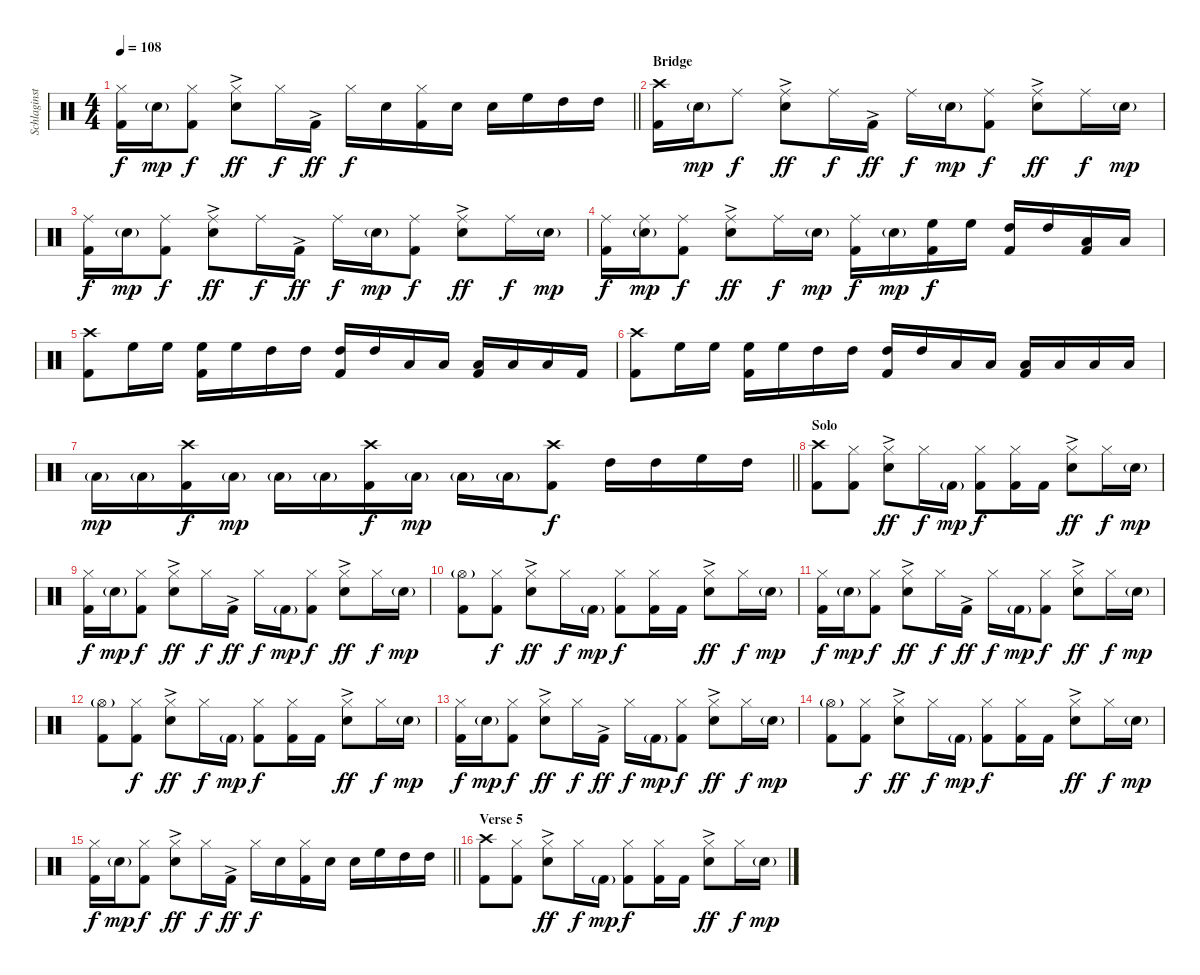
\track ("Schlaginstrumente - Auswahl" "Schlaginst") {instrument percussion}
\staff {score}
\articulation defaults
\ts (4 4)
\tempo 108
\clef neutral
\barLineRight lightlight
\ks c
("Hi-Hat (closed)" "Kick (hit) 2").16{dy f} "Snare (hit) 2"{g}.16{dy mp} ("Hi-Hat (closed)" "Kick (hit) 2").8{dy f} ("Hi-Hat (closed)" "Snare (hit) 2"{ac}).8{dy ff} "Hi-Hat (closed)".16{dy f} "Kick (hit) 2"{ac}.16{dy ff} "Hi-Hat (closed)".16{dy f} "Snare (hit) 2".16 ("Hi-Hat (closed)" "Kick (hit) 2").16 "Snare (hit) 2".16 "Snare (hit) 2".16 "High Floor Tom (hit)".16 "High Tom (hit)".16 "High Tom (hit)".16 |
\section ("" "Bridge")
("Crash high (hit)" "Kick (hit) 2").16 "Snare (hit) 2"{g}.16{dy mp} "Ride (middle)".8{dy f} ("Ride (middle)" "Snare (hit) 2"{ac}).8{dy ff} "Ride (middle)".16{dy f} "Kick (hit) 2"{ac}.16{dy ff} "Ride (middle)".16{dy f} "Snare (hit) 2"{g}.16{dy mp} ("Ride (middle)" "Kick (hit) 2").8{dy f} ("Ride (middle)" "Snare (hit) 2"{ac}).8{dy ff} "Ride (middle)".16{dy f} "Snare (hit) 2"{g}.16{dy mp} |
("Ride (middle)" "Kick (hit) 2").16{dy f} "Snare (hit) 2"{g}.16{dy mp} ("Ride (middle)" "Kick (hit) 2").8{dy f} ("Ride (middle)" "Snare (hit) 2"{ac}).8{dy ff} "Ride (middle)".16{dy f} "Kick (hit) 2"{ac}.16{dy ff} "Ride (middle)".16{dy f} "Snare (hit) 2"{g}.16{dy mp} ("Ride (middle)" "Kick (hit) 2").8{dy f} ("Ride (middle)" "Snare (hit) 2"{ac}).8{dy ff} "Ride (middle)".16{dy f} "Snare (hit) 2"{g}.16{dy mp} |
("Ride (middle)" "Kick (hit) 2").16{dy f} ("Ride (middle)" "Snare (hit) 2"{g}).16{dy mp} ("Ride (middle)" "Kick (hit) 2").8{dy f} ("Ride (middle)" "Snare (hit) 2"{ac}).8{dy ff} "Ride (middle)".16{dy f} "Snare (hit) 2"{g}.16{dy mp} ("Ride (middle)" "Kick (hit) 2").16{dy f} "Snare (hit) 2"{g}.16{dy mp} ("High Floor Tom (hit)" "Kick (hit) 2").16{dy f} "High Floor Tom (hit)".16 ("High Tom (hit)" "Kick (hit) 2").16 "High Tom (hit)".16 ("Low Tom (hit)" "Kick (hit) 2").16 "Low Tom (hit)".16 |
("Crash high (hit)" "Kick (hit) 2").8 "High Floor Tom (hit)".16 "High Floor Tom (hit)".16 ("High Floor Tom (hit)" "Kick (hit) 2").16 "High Floor Tom (hit)".16 "High Tom (hit)".16 "High Tom (hit)".16 ("High Tom (hit)" "Kick (hit) 2").16 "High Tom (hit)".16 "Low Tom (hit)".16 "Low Tom (hit)".16 ("Low Tom (hit)" "Kick (hit) 2").16 "Low Tom (hit)".16 "Low Tom (hit)".16 "Kick (hit) 2".16 |
("Crash high (hit)" "Kick (hit) 2").8 "High Floor Tom (hit)".16 "High Floor Tom (hit)".16 ("High Floor Tom (hit)" "Kick (hit) 2").16 "High Floor Tom (hit)".16 "High Tom (hit)".16 "High Tom (hit)".16 ("High Tom (hit)" "Kick (hit) 2").16 "High Tom (hit)".16 "Low Tom (hit)".16 "Low Tom (hit)".16 ("Low Tom (hit)" "Kick (hit) 2").16 "Low Tom (hit)".16 "Low Tom (hit)".16 "Low Tom (hit)".16 |
\barLineRight lightlight "Low Tom (hit)"{g}.16{dy mp} "Low Tom (hit)"{g}.16
("Crash high (hit)" "Kick (hit) 2").16{dy f} "Low Tom (hit)"{g}.16{dy mp} "Low Tom (hit)"{g}.16 "Low Tom (hit)"{g}.16 ("Crash high (hit)" "Kick (hit) 2").16{dy f} "Low Tom (hit)"{g}.16{dy mp} "Low Tom (hit)"{g}.16 "Low Tom (hit)"{g}.16 ("Crash high (hit)" "Kick (hit) 2").8{dy f} "High Tom (hit)".16 "High Tom (hit)".16 "High Floor Tom (hit)".16 "High Tom (hit)".16 |
\section ("" "Solo")
("Crash high (hit)" "Kick (hit) 2").8 ("Hi-Hat (closed)" "Kick (hit) 2").8 ("Hi-Hat (closed)" "Snare (hit) 2"{ac}).8{dy ff} "Hi-Hat (closed)".16{dy f} "Kick (hit) 2"{g}.16{dy mp} ("Hi-Hat (closed)" "Kick (hit) 2").8{dy f} ("Hi-Hat (closed)" "Kick (hit) 2").16 "Kick (hit) 2".16 ("Hi-Hat (closed)" "Snare (hit) 2"{ac}).8{dy ff} "Hi-Hat (closed)".16{dy f} "Snare (hit) 2"{g}.16{dy mp} |
("Hi-Hat (closed)" "Kick (hit) 2").16{dy f} "Snare (hit) 2"{g}.16{dy mp} ("Hi-Hat (closed)" "Kick (hit) 2").8{dy f} ("Hi-Hat (closed)" "Snare (hit) 2"{ac}).8{dy ff} "Hi-Hat (closed)".16{dy f} "Kick (hit) 2"{ac}.16{dy ff} "Hi-Hat (closed)".16{dy f} "Kick (hit) 2"{g}.16{dy mp} ("Hi-Hat (closed)" "Kick (hit) 2").8{dy f} ("Hi-Hat (closed)" "Snare (hit) 2"{ac}).8{dy ff} "Hi-Hat (closed)".16{dy f} "Snare (hit) 2"{g}.16{dy mp} |
("Hi-Hat (open)"{g} "Kick (hit) 2").8 ("Hi-Hat (closed)" "Kick (hit) 2").8{dy f} ("Hi-Hat (closed)" "Snare (hit) 2"{ac}).8{dy ff} "Hi-Hat (closed)".16{dy f} "Kick (hit) 2"{g}.16{dy mp} ("Hi-Hat (closed)" "Kick (hit) 2").8{dy f} ("Hi-Hat (closed)" "Kick (hit) 2").16 "Kick (hit) 2".16 ("Hi-Hat (closed)" "Snare (hit) 2"{ac}).8{dy ff} "Hi-Hat (closed)".16{dy f} "Snare (hit) 2"{g}.16{dy mp} |
("Hi-Hat (closed)" "Kick (hit) 2").16{dy f} "Snare (hit) 2"{g}.16{dy mp} ("Hi-Hat (closed)" "Kick (hit) 2").8{dy f} ("Hi-Hat (closed)" "Snare (hit) 2"{ac}).8{dy ff} "Hi-Hat (closed)".16{dy f} "Kick (hit) 2"{ac}.16{dy ff} "Hi-Hat (closed)".16{dy f} "Kick (hit) 2"{g}.16{dy mp} ("Hi-Hat (closed)" "Kick (hit) 2").8{dy f} ("Hi-Hat (closed)" "Snare (hit) 2"{ac}).8{dy ff} "Hi-Hat (closed)".16{dy f} "Snare (hit) 2"{g}.16{dy mp} |
("Hi-Hat (open)"{g} "Kick (hit) 2").8 ("Hi-Hat (closed)" "Kick (hit) 2").8{dy f} ("Hi-Hat (closed)" "Snare (hit) 2"{ac}).8{dy ff} "Hi-Hat (closed)".16{dy f} "Kick (hit) 2"{g}.16{dy mp} ("Hi-Hat (closed)" "Kick (hit) 2").8{dy f} ("Hi-Hat (closed)" "Kick (hit) 2").16 "Kick (hit) 2".16 ("Hi-Hat (closed)" "Snare (hit) 2"{ac}).8{dy ff} "Hi-Hat (closed)".16{dy f} "Snare (hit) 2"{g}.16{dy mp} |
("Hi-Hat (closed)" "Kick (hit) 2").16{dy f} "Snare (hit) 2"{g}.16{dy mp} ("Hi-Hat (closed)" "Kick (hit) 2").8{dy f} ("Hi-Hat (closed)" "Snare (hit) 2"{ac}).8{dy ff} "Hi-Hat (closed)".16{dy f} "Kick (hit) 2"{ac}.16{dy ff} "Hi-Hat (closed)".16{dy f} "Kick (hit) 2"{g}.16{dy mp} ("Hi-Hat (closed)" "Kick (hit) 2").8{dy f} ("Hi-Hat (closed)" "Snare (hit) 2"{ac}).8{dy ff} "Hi-Hat (closed)".16{dy f} "Snare (hit) 2"{g}.16{dy mp} |
("Hi-Hat (open)"{g} "Kick (hit) 2").8 ("Hi-Hat (closed)" "Kick (hit) 2").8{dy f} ("Hi-Hat (closed)" "Snare (hit) 2"{ac}).8{dy ff} "Hi-Hat (closed)".16{dy f} "Kick (hit) 2"{g}.16{dy mp} ("Hi-Hat (closed)" "Kick (hit) 2").8{dy f} ("Hi-Hat (closed)" "Kick (hit) 2").16 "Kick (hit) 2".16 ("Hi-Hat (closed)" "Snare (hit) 2"{ac}).8{dy ff} "Hi-Hat (closed)".16{dy f} "Snare (hit) 2"{g}.16{dy mp} |
\barLineRight lightlight
("Hi-Hat (closed)" "Kick (hit) 2").16{dy f} "Snare (hit) 2"{g}.16{dy mp} ("Hi-Hat (closed)" "Kick (hit) 2").8{dy f} ("Hi-Hat (closed)" "Snare (hit) 2"{ac}).8{dy ff} "Hi-Hat (closed)".16{dy f} "Kick (hit) 2"{ac}.16{dy ff} "Hi-Hat (closed)".16{dy f} "Snare (hit) 2".16 ("Hi-Hat (closed)" "Kick (hit) 2").16 "Snare (hit) 2".16 "Snare (hit) 2".16 "High Floor Tom (hit)".16 "High Tom (hit)".16 "High Tom (hit)".16 |
\section ("" "Verse 5")
("Crash high (hit)" "Kick (hit) 2").8 ("Hi-Hat (closed)" "Kick (hit) 2").8 ("Hi-Hat (closed)" "Snare (hit) 2"{ac}).8{dy ff} "Hi-Hat (closed)".16{dy f} "Kick (hit) 2"{g}.16{dy mp} ("Hi-Hat (closed)" "Kick (hit) 2").8{dy f} ("Hi-Hat (closed)" "Kick (hit) 2").16 "Kick (hit) 2".16 ("Hi-Hat (closed)" "Snare (hit) 2"{ac}).8{dy ff} "Hi-Hat (closed)".16{dy f} "Snare (hit) 2"{g}.16{dy mp}
